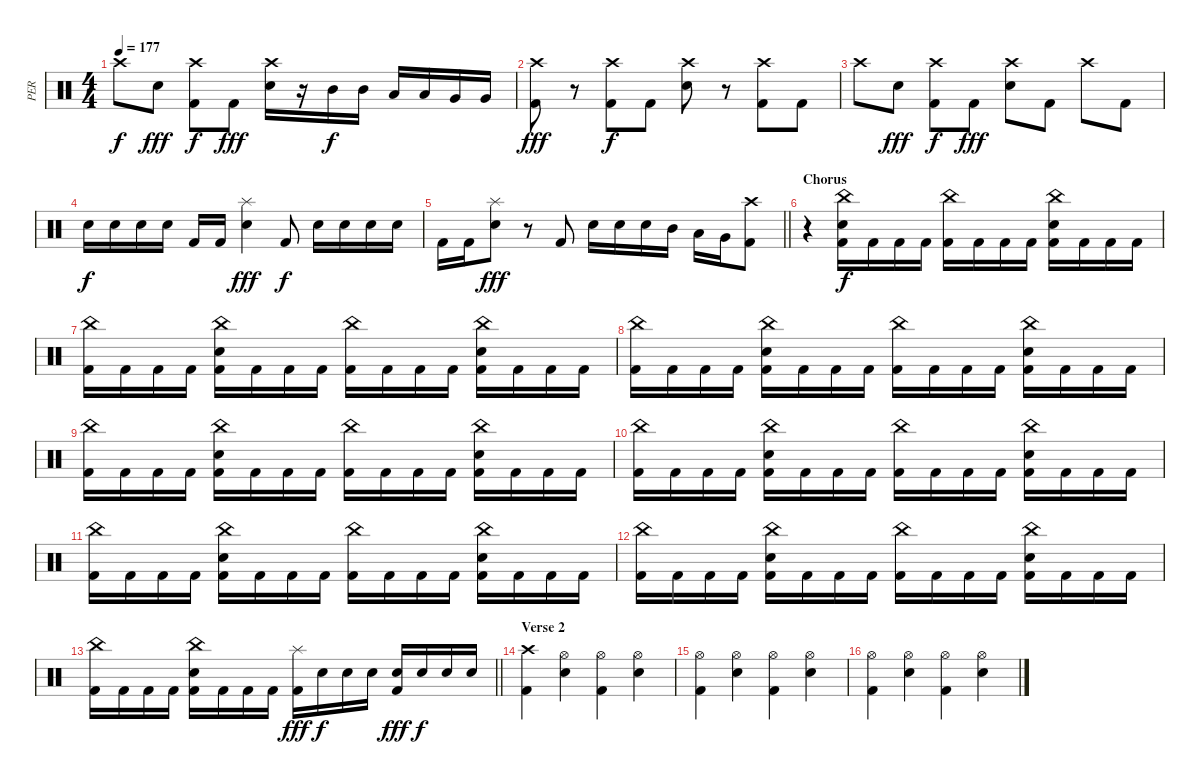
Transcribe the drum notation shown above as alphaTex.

\track ("PER" "PER") {instrument percussion}
\staff {score}
\articulation defaults
\ts (4 4)
\tempo 177
\clef neutral
\ks c "Crash high (hit)".8{dy f} "Electric Snare (hit)".8{dy fff}
("Crash high (hit)" "Kick (hit) 2").8{dy f} "Kick (hit) 2".8{dy fff} ("Crash high (hit)" "Electric Snare (hit)").16 r.16 "Mid Tom (hit)".16{dy f} "Mid Tom (hit)".16 "Low Tom (hit)".16 "Low Tom (hit)".16 "Very Low Tom (hit)".16 "Very Low Tom (hit)".16 |
("Crash high (hit)" "Kick (hit) 2").8{dy fff} r.8 ("Crash high (hit)" "Kick (hit) 2").8{dy f} "Kick (hit) 2".8 ("Crash high (hit)" "Electric Snare (hit)").8 r.8 ("Crash high (hit)" "Kick (hit) 2").8 "Kick (hit) 2".8 |
"Crash high (hit)".8 "Electric Snare (hit)".8{dy fff} ("Crash high (hit)" "Kick (hit) 2").8{dy f} "Kick (hit) 2".8{dy fff} ("Crash high (hit)" "Electric Snare (hit)").8 "Kick (hit) 2".8 "Crash high (hit)".8 "Kick (hit) 2".8 |
"Electric Snare (hit)".16{dy f} "Electric Snare (hit)".16 "Electric Snare (hit)".16 "Electric Snare (hit)".16 "Kick (hit) 2".16 "Kick (hit) 2".16 ("Splash (hit)" "Electric Snare (hit)").4{dy fff} "Kick (hit) 2".8{dy f} "Electric Snare (hit)".16 "Electric Snare (hit)".16 "Electric Snare (hit)".16 "Electric Snare (hit)".16 |
\barLineRight lightlight "Kick (hit) 2".16 "Kick (hit) 2".16
("Splash (hit)" "Electric Snare (hit)").8{dy fff} r.8 "Kick (hit) 2".8 "Electric Snare (hit)".16 "Electric Snare (hit)".16 "Electric Snare (hit)".16 "Mid Tom (hit)".16 "Low Tom (hit)".16 "Very Low Tom (hit)".16 ("Crash high (hit)" "Kick (hit) 2").8 |
\section ("" "Chorus")
r.4 ("China (hit)" "Electric Snare (hit)" "Kick (hit) 2").16{dy f} "Kick (hit) 2".16 "Kick (hit) 2".16 "Kick (hit) 2".16 ("China (hit)" "Kick (hit) 2").16 "Kick (hit) 2".16 "Kick (hit) 2".16 "Kick (hit) 2".16 ("China (hit)" "Electric Snare (hit)" "Kick (hit) 2").16 "Kick (hit) 2".16 "Kick (hit) 2".16 "Kick (hit) 2".16 |
("China (hit)" "Kick (hit) 2").16 "Kick (hit) 2".16 "Kick (hit) 2".16 "Kick (hit) 2".16 ("China (hit)" "Electric Snare (hit)" "Kick (hit) 2").16 "Kick (hit) 2".16 "Kick (hit) 2".16 "Kick (hit) 2".16 ("China (hit)" "Kick (hit) 2").16 "Kick (hit) 2".16 "Kick (hit) 2".16 "Kick (hit) 2".16 ("China (hit)" "Electric Snare (hit)" "Kick (hit) 2").16 "Kick (hit) 2".16 "Kick (hit) 2".16 "Kick (hit) 2".16 |
("China (hit)" "Kick (hit) 2").16 "Kick (hit) 2".16 "Kick (hit) 2".16 "Kick (hit) 2".16 ("China (hit)" "Electric Snare (hit)" "Kick (hit) 2").16 "Kick (hit) 2".16 "Kick (hit) 2".16 "Kick (hit) 2".16 ("China (hit)" "Kick (hit) 2").16 "Kick (hit) 2".16 "Kick (hit) 2".16 "Kick (hit) 2".16 ("China (hit)" "Electric Snare (hit)" "Kick (hit) 2").16 "Kick (hit) 2".16 "Kick (hit) 2".16 "Kick (hit) 2".16 |
("China (hit)" "Kick (hit) 2").16 "Kick (hit) 2".16 "Kick (hit) 2".16 "Kick (hit) 2".16 ("China (hit)" "Electric Snare (hit)" "Kick (hit) 2").16 "Kick (hit) 2".16 "Kick (hit) 2".16 "Kick (hit) 2".16 ("China (hit)" "Kick (hit) 2").16 "Kick (hit) 2".16 "Kick (hit) 2".16 "Kick (hit) 2".16 ("China (hit)" "Electric Snare (hit)" "Kick (hit) 2").16 "Kick (hit) 2".16 "Kick (hit) 2".16 "Kick (hit) 2".16 |
("China (hit)" "Kick (hit) 2").16 "Kick (hit) 2".16 "Kick (hit) 2".16 "Kick (hit) 2".16 ("China (hit)" "Electric Snare (hit)" "Kick (hit) 2").16 "Kick (hit) 2".16 "Kick (hit) 2".16 "Kick (hit) 2".16 ("China (hit)" "Kick (hit) 2").16 "Kick (hit) 2".16 "Kick (hit) 2".16 "Kick (hit) 2".16 ("China (hit)" "Electric Snare (hit)" "Kick (hit) 2").16 "Kick (hit) 2".16 "Kick (hit) 2".16 "Kick (hit) 2".16 |
("China (hit)" "Kick (hit) 2").16 "Kick (hit) 2".16 "Kick (hit) 2".16 "Kick (hit) 2".16 ("China (hit)" "Electric Snare (hit)" "Kick (hit) 2").16 "Kick (hit) 2".16 "Kick (hit) 2".16 "Kick (hit) 2".16 ("China (hit)" "Kick (hit) 2").16 "Kick (hit) 2".16 "Kick (hit) 2".16 "Kick (hit) 2".16 ("China (hit)" "Electric Snare (hit)" "Kick (hit) 2").16 "Kick (hit) 2".16 "Kick (hit) 2".16 "Kick (hit) 2".16 |
("China (hit)" "Kick (hit) 2").16 "Kick (hit) 2".16 "Kick (hit) 2".16 "Kick (hit) 2".16 ("China (hit)" "Electric Snare (hit)" "Kick (hit) 2").16 "Kick (hit) 2".16 "Kick (hit) 2".16 "Kick (hit) 2".16 ("China (hit)" "Kick (hit) 2").16 "Kick (hit) 2".16 "Kick (hit) 2".16 "Kick (hit) 2".16 ("China (hit)" "Electric Snare (hit)" "Kick (hit) 2").16 "Kick (hit) 2".16 "Kick (hit) 2".16 "Kick (hit) 2".16 |
\barLineRight lightlight
("China (hit)" "Kick (hit) 2").16 "Kick (hit) 2".16 "Kick (hit) 2".16 "Kick (hit) 2".16 ("China (hit)" "Electric Snare (hit)" "Kick (hit) 2").16 "Kick (hit) 2".16 "Kick (hit) 2".16 "Kick (hit) 2".16 ("Splash (hit)" "Kick (hit) 2").16{dy fff} "Electric Snare (hit)".16{dy f} "Electric Snare (hit)".16 "Electric Snare (hit)".16 ("Electric Snare (hit)" "Kick (hit) 2").16{dy fff} "Electric Snare (hit)".16{dy f} "Electric Snare (hit)".16 "Electric Snare (hit)".16 |
\section ("" "Verse 2")
("Crash high (hit)" "Kick (hit) 2").4 ("Hi-Hat (open)" "Electric Snare (hit)").4 ("Hi-Hat (open)" "Kick (hit) 2").4 ("Hi-Hat (open)" "Electric Snare (hit)").4 |
("Hi-Hat (open)" "Kick (hit) 2").4 ("Hi-Hat (open)" "Electric Snare (hit)").4 ("Hi-Hat (open)" "Kick (hit) 2").4 ("Hi-Hat (open)" "Electric Snare (hit)").4 |
("Hi-Hat (open)" "Kick (hit) 2").4 ("Hi-Hat (open)" "Electric Snare (hit)").4 ("Hi-Hat (open)" "Kick (hit) 2").4 ("Hi-Hat (open)" "Electric Snare (hit)").4
